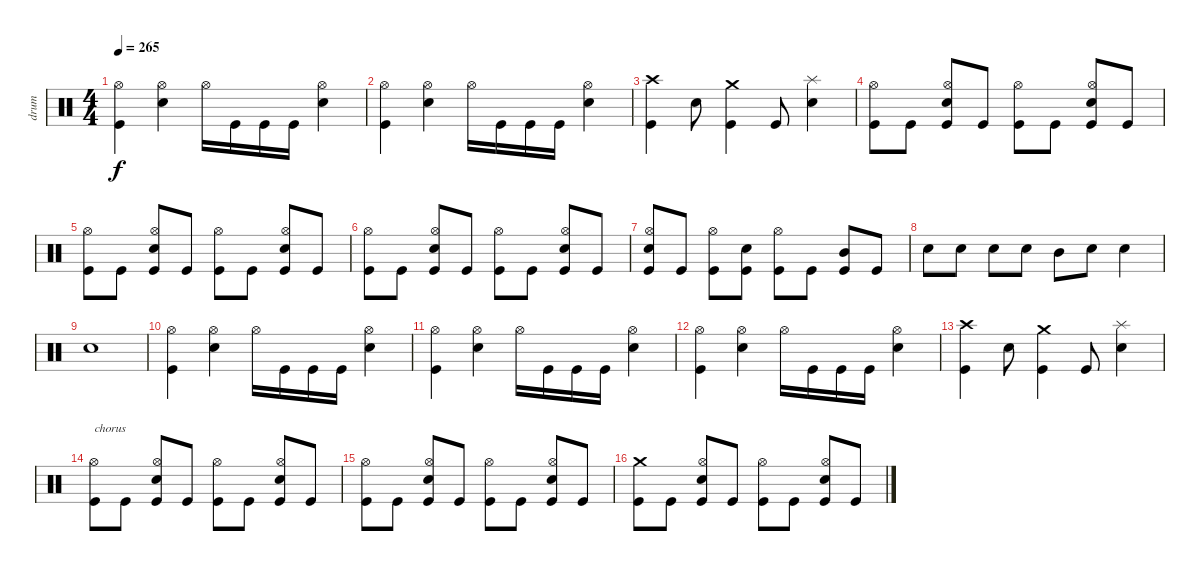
\track ("drum" "drum") {instrument percussion}
\staff {score}
\articulation defaults
\ts (4 4)
\tempo 265
\clef neutral
\ks c
("Kick (hit)" "Hi-Hat (open)").4{dy f} ("Electric Snare (hit)" "Hi-Hat (open)").4 "Hi-Hat (open)".16 "Kick (hit)".16 "Kick (hit)".16 "Kick (hit)".16 ("Electric Snare (hit)" "Hi-Hat (open)").4 |
("Kick (hit)" "Hi-Hat (open)").4 ("Electric Snare (hit)" "Hi-Hat (open)").4 "Hi-Hat (open)".16 "Kick (hit)".16 "Kick (hit)".16 "Kick (hit)".16 ("Electric Snare (hit)" "Hi-Hat (open)").4 |
("Kick (hit)" "Crash high (hit)").4 "Electric Snare (hit)".8 ("Kick (hit)" "Crash medium (hit)").4 "Kick (hit)".8 ("Electric Snare (hit)" "Splash (hit)").4 |
("Kick (hit)" "Hi-Hat (open)").8 "Kick (hit)".8 ("Kick (hit)" "Electric Snare (hit)" "Hi-Hat (open)").8 "Kick (hit)".8 ("Kick (hit)" "Hi-Hat (open)").8 "Kick (hit)".8 ("Kick (hit)" "Electric Snare (hit)" "Hi-Hat (open)").8 "Kick (hit)".8 |
("Kick (hit)" "Hi-Hat (open)").8 "Kick (hit)".8 ("Kick (hit)" "Electric Snare (hit)" "Hi-Hat (open)").8 "Kick (hit)".8 ("Kick (hit)" "Hi-Hat (open)").8 "Kick (hit)".8 ("Kick (hit)" "Electric Snare (hit)" "Hi-Hat (open)").8 "Kick (hit)".8 |
("Kick (hit)" "Hi-Hat (open)").8 "Kick (hit)".8 ("Kick (hit)" "Electric Snare (hit)" "Hi-Hat (open)").8 "Kick (hit)".8 ("Kick (hit)" "Hi-Hat (open)").8 "Kick (hit)".8 ("Kick (hit)" "Electric Snare (hit)" "Hi-Hat (open)").8 "Kick (hit)".8 |
("Kick (hit)" "Electric Snare (hit)" "Hi-Hat (open)").8 "Kick (hit)".8 ("Kick (hit)" "Hi-Hat (open)").8 ("Kick (hit)" "Electric Snare (hit)").8 ("Kick (hit)" "Hi-Hat (open)").8 "Kick (hit)".8 ("Kick (hit)" "Mid Tom (hit)").8 "Kick (hit)".8 |
"Electric Snare (hit)".8 "Electric Snare (hit)".8 "Electric Snare (hit)".8 "Electric Snare (hit)".8 "Mid Tom (hit)".8 "Electric Snare (hit)".8 "Electric Snare (hit)".4 |
"Electric Snare (hit)".1 |
("Kick (hit)" "Hi-Hat (open)").4 ("Electric Snare (hit)" "Hi-Hat (open)").4 "Hi-Hat (open)".16 "Kick (hit)".16 "Kick (hit)".16 "Kick (hit)".16 ("Electric Snare (hit)" "Hi-Hat (open)").4 |
("Kick (hit)" "Hi-Hat (open)").4 ("Electric Snare (hit)" "Hi-Hat (open)").4 "Hi-Hat (open)".16 "Kick (hit)".16 "Kick (hit)".16 "Kick (hit)".16 ("Electric Snare (hit)" "Hi-Hat (open)").4 |
("Kick (hit)" "Hi-Hat (open)").4 ("Electric Snare (hit)" "Hi-Hat (open)").4 "Hi-Hat (open)".16 "Kick (hit)".16 "Kick (hit)".16 "Kick (hit)".16 ("Electric Snare (hit)" "Hi-Hat (open)").4 |
("Kick (hit)" "Crash high (hit)").4 "Electric Snare (hit)".8 ("Kick (hit)" "Crash medium (hit)").4 "Kick (hit)".8 ("Electric Snare (hit)" "Splash (hit)").4 |
("Kick (hit)" "Hi-Hat (open)").8{txt "chorus"} "Kick (hit)".8 ("Kick (hit)" "Electric Snare (hit)" "Hi-Hat (open)").8 "Kick (hit)".8 ("Kick (hit)" "Hi-Hat (open)").8 "Kick (hit)".8 ("Kick (hit)" "Electric Snare (hit)" "Hi-Hat (open)").8 "Kick (hit)".8 |
("Kick (hit)" "Hi-Hat (open)").8 "Kick (hit)".8 ("Kick (hit)" "Electric Snare (hit)" "Hi-Hat (open)").8 "Kick (hit)".8 ("Kick (hit)" "Hi-Hat (open)").8 "Kick (hit)".8 ("Kick (hit)" "Electric Snare (hit)" "Hi-Hat (open)").8 "Kick (hit)".8 |
("Kick (hit)" "Crash medium (hit)").8 "Kick (hit)".8 ("Kick (hit)" "Electric Snare (hit)" "Hi-Hat (open)").8 "Kick (hit)".8 ("Kick (hit)" "Hi-Hat (open)").8 "Kick (hit)".8 ("Kick (hit)" "Electric Snare (hit)" "Hi-Hat (open)").8 "Kick (hit)".8
